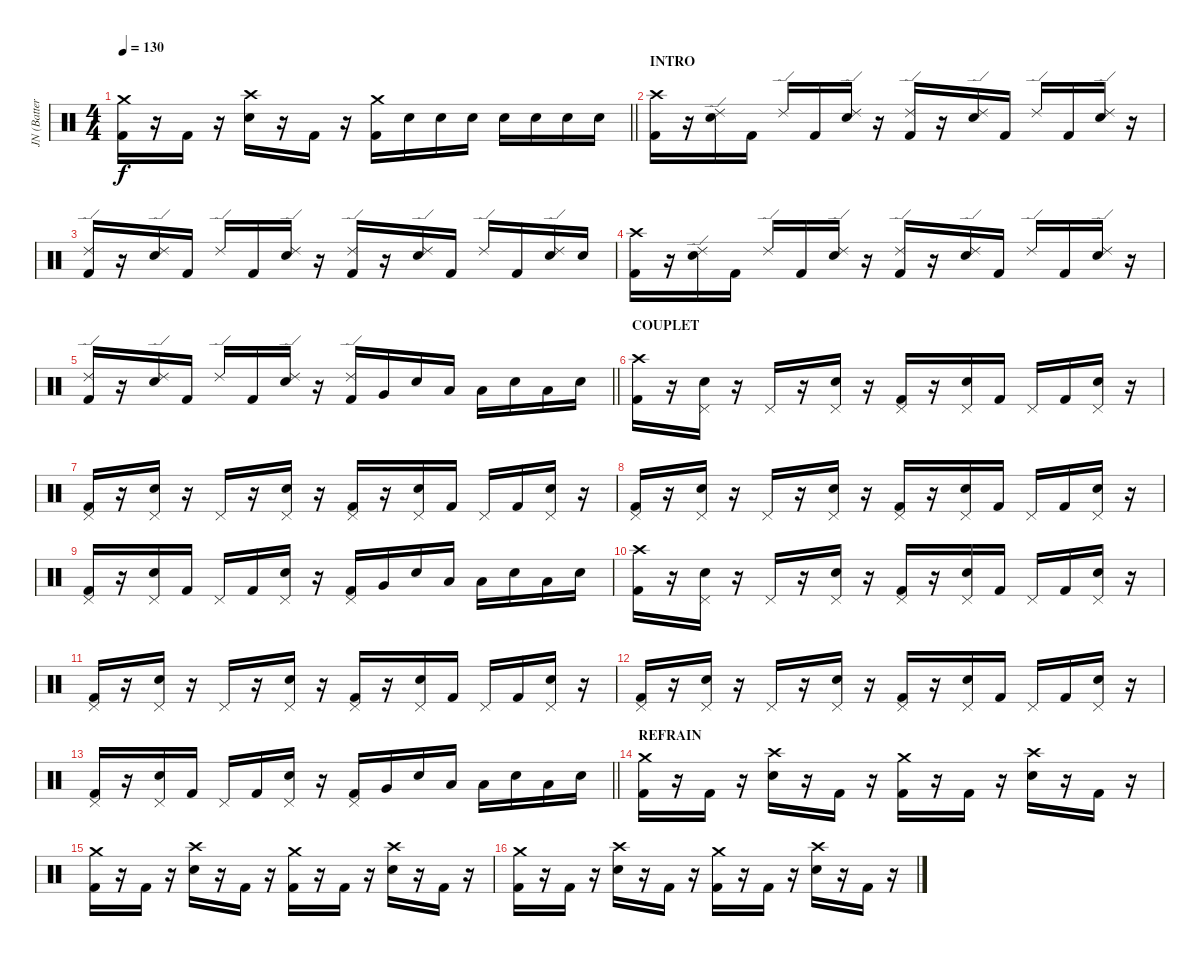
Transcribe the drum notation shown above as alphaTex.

\track ("JN (Batterie)" "JN (Batter") {instrument percussion}
\staff {score}
\articulation defaults
\ts (4 4)
\tempo 130
\clef neutral
\barLineRight lightlight
\ks c
("Crash medium (hit)" "Kick (hit) 2").16{dy f} r.16 "Kick (hit) 2".16 r.16 ("Crash high (hit)" "Electric Snare (hit)").16 r.16 "Kick (hit) 2".16 r.16 ("Crash medium (hit)" "Kick (hit) 2").16 "Electric Snare (hit)".16 "Electric Snare (hit)".16 "Electric Snare (hit)".16 "Electric Snare (hit)".16 "Electric Snare (hit)".16 "Electric Snare (hit)".16 "Electric Snare (hit)".16 |
\section ("" "INTRO")
("Crash high (hit)" "Kick (hit) 2").16 r.16 ("Ride (edge) 2" "Electric Snare (hit)").16 "Kick (hit) 2".16 "Ride (edge) 2".16 "Kick (hit) 2".16 ("Ride (edge) 2" "Electric Snare (hit)").16 r.16 ("Ride (edge) 2" "Kick (hit) 2").16 r.16 ("Ride (edge) 2" "Electric Snare (hit)").16 "Kick (hit) 2".16 "Ride (edge) 2".16 "Kick (hit) 2".16 ("Ride (edge) 2" "Electric Snare (hit)").16 r.16 |
("Ride (edge) 2" "Kick (hit) 2").16 r.16 ("Ride (edge) 2" "Electric Snare (hit)").16 "Kick (hit) 2".16 "Ride (edge) 2".16 "Kick (hit) 2".16 ("Ride (edge) 2" "Electric Snare (hit)").16 r.16 ("Ride (edge) 2" "Kick (hit) 2").16 r.16 ("Ride (edge) 2" "Electric Snare (hit)").16 "Kick (hit) 2".16 "Ride (edge) 2".16 "Kick (hit) 2".16 ("Ride (edge) 2" "Electric Snare (hit)").16 "Electric Snare (hit)".16 |
("Crash high (hit)" "Kick (hit) 2").16 r.16 ("Ride (edge) 2" "Electric Snare (hit)").16 "Kick (hit) 2".16 "Ride (edge) 2".16 "Kick (hit) 2".16 ("Ride (edge) 2" "Electric Snare (hit)").16 r.16 ("Ride (edge) 2" "Kick (hit) 2").16 r.16 ("Ride (edge) 2" "Electric Snare (hit)").16 "Kick (hit) 2".16 "Ride (edge) 2".16 "Kick (hit) 2".16 ("Ride (edge) 2" "Electric Snare (hit)").16 r.16 |
\barLineRight lightlight
("Ride (edge) 2" "Kick (hit) 2").16 r.16 ("Ride (edge) 2" "Electric Snare (hit)").16 "Kick (hit) 2".16 "Ride (edge) 2".16 "Kick (hit) 2".16 ("Ride (edge) 2" "Electric Snare (hit)").16 r.16 ("Ride (edge) 2" "Kick (hit) 2").16 "Very Low Tom (hit)".16 "Electric Snare (hit)".16 "Low Tom (hit)".16 "Low Tom (hit)".16 "Electric Snare (hit)".16 "Low Tom (hit)".16 "Electric Snare (hit)".16 |
\section ("" "COUPLET")
("Crash high (hit)" "Kick (hit) 2").16 r.16 ("Pedal Hi-Hat (hit)" "Electric Snare (hit)").16 r.16 "Pedal Hi-Hat (hit)".16 r.16 ("Pedal Hi-Hat (hit)" "Electric Snare (hit)").16 r.16 ("Pedal Hi-Hat (hit)" "Kick (hit) 2").16 r.16 ("Pedal Hi-Hat (hit)" "Electric Snare (hit)").16 "Kick (hit) 2".16 "Pedal Hi-Hat (hit)".16 "Kick (hit) 2".16 ("Pedal Hi-Hat (hit)" "Electric Snare (hit)").16 r.16 |
("Pedal Hi-Hat (hit)" "Kick (hit) 2").16 r.16 ("Pedal Hi-Hat (hit)" "Electric Snare (hit)").16 r.16 "Pedal Hi-Hat (hit)".16 r.16 ("Pedal Hi-Hat (hit)" "Electric Snare (hit)").16 r.16 ("Pedal Hi-Hat (hit)" "Kick (hit) 2").16 r.16 ("Pedal Hi-Hat (hit)" "Electric Snare (hit)").16 "Kick (hit) 2".16 "Pedal Hi-Hat (hit)".16 "Kick (hit) 2".16 ("Pedal Hi-Hat (hit)" "Electric Snare (hit)").16 r.16 |
("Pedal Hi-Hat (hit)" "Kick (hit) 2").16 r.16 ("Pedal Hi-Hat (hit)" "Electric Snare (hit)").16 r.16 "Pedal Hi-Hat (hit)".16 r.16 ("Pedal Hi-Hat (hit)" "Electric Snare (hit)").16 r.16 ("Pedal Hi-Hat (hit)" "Kick (hit) 2").16 r.16 ("Pedal Hi-Hat (hit)" "Electric Snare (hit)").16 "Kick (hit) 2".16 "Pedal Hi-Hat (hit)".16 "Kick (hit) 2".16 ("Pedal Hi-Hat (hit)" "Electric Snare (hit)").16 r.16 |
("Pedal Hi-Hat (hit)" "Kick (hit) 2").16 r.16 ("Pedal Hi-Hat (hit)" "Electric Snare (hit)").16 "Kick (hit) 2".16 "Pedal Hi-Hat (hit)".16 "Kick (hit) 2".16 ("Pedal Hi-Hat (hit)" "Electric Snare (hit)").16 r.16 ("Pedal Hi-Hat (hit)" "Kick (hit) 2").16 "Very Low Tom (hit)".16 "Electric Snare (hit)".16 "Low Tom (hit)".16 "Low Tom (hit)".16 "Electric Snare (hit)".16 "Low Tom (hit)".16 "Electric Snare (hit)".16 |
("Crash high (hit)" "Kick (hit) 2").16 r.16 ("Pedal Hi-Hat (hit)" "Electric Snare (hit)").16 r.16 "Pedal Hi-Hat (hit)".16 r.16 ("Pedal Hi-Hat (hit)" "Electric Snare (hit)").16 r.16 ("Pedal Hi-Hat (hit)" "Kick (hit) 2").16 r.16 ("Pedal Hi-Hat (hit)" "Electric Snare (hit)").16 "Kick (hit) 2".16 "Pedal Hi-Hat (hit)".16 "Kick (hit) 2".16 ("Pedal Hi-Hat (hit)" "Electric Snare (hit)").16 r.16 |
("Pedal Hi-Hat (hit)" "Kick (hit) 2").16 r.16 ("Pedal Hi-Hat (hit)" "Electric Snare (hit)").16 r.16 "Pedal Hi-Hat (hit)".16 r.16 ("Pedal Hi-Hat (hit)" "Electric Snare (hit)").16 r.16 ("Pedal Hi-Hat (hit)" "Kick (hit) 2").16 r.16 ("Pedal Hi-Hat (hit)" "Electric Snare (hit)").16 "Kick (hit) 2".16 "Pedal Hi-Hat (hit)".16 "Kick (hit) 2".16 ("Pedal Hi-Hat (hit)" "Electric Snare (hit)").16 r.16 |
("Pedal Hi-Hat (hit)" "Kick (hit) 2").16 r.16 ("Pedal Hi-Hat (hit)" "Electric Snare (hit)").16 r.16 "Pedal Hi-Hat (hit)".16 r.16 ("Pedal Hi-Hat (hit)" "Electric Snare (hit)").16 r.16 ("Pedal Hi-Hat (hit)" "Kick (hit) 2").16 r.16 ("Pedal Hi-Hat (hit)" "Electric Snare (hit)").16 "Kick (hit) 2".16 "Pedal Hi-Hat (hit)".16 "Kick (hit) 2".16 ("Pedal Hi-Hat (hit)" "Electric Snare (hit)").16 r.16 |
\barLineRight lightlight
("Pedal Hi-Hat (hit)" "Kick (hit) 2").16 r.16 ("Pedal Hi-Hat (hit)" "Electric Snare (hit)").16 "Kick (hit) 2".16 "Pedal Hi-Hat (hit)".16 "Kick (hit) 2".16 ("Pedal Hi-Hat (hit)" "Electric Snare (hit)").16 r.16 ("Pedal Hi-Hat (hit)" "Kick (hit) 2").16 "Very Low Tom (hit)".16 "Electric Snare (hit)".16 "Low Tom (hit)".16 "Low Tom (hit)".16 "Electric Snare (hit)".16 "Low Tom (hit)".16 "Electric Snare (hit)".16 |
\section ("" "REFRAIN")
("Crash medium (hit)" "Kick (hit) 2").16 r.16 "Kick (hit) 2".16 r.16 ("Crash high (hit)" "Electric Snare (hit)").16 r.16 "Kick (hit) 2".16 r.16 ("Crash medium (hit)" "Kick (hit) 2").16 r.16 "Kick (hit) 2".16 r.16 ("Crash high (hit)" "Electric Snare (hit)").16 r.16 "Kick (hit) 2".16 r.16 |
("Crash medium (hit)" "Kick (hit) 2").16 r.16 "Kick (hit) 2".16 r.16 ("Crash high (hit)" "Electric Snare (hit)").16 r.16 "Kick (hit) 2".16 r.16 ("Crash medium (hit)" "Kick (hit) 2").16 r.16 "Kick (hit) 2".16 r.16 ("Crash high (hit)" "Electric Snare (hit)").16 r.16 "Kick (hit) 2".16 r.16 |
("Crash medium (hit)" "Kick (hit) 2").16 r.16 "Kick (hit) 2".16 r.16 ("Crash high (hit)" "Electric Snare (hit)").16 r.16 "Kick (hit) 2".16 r.16 ("Crash medium (hit)" "Kick (hit) 2").16 r.16 "Kick (hit) 2".16 r.16 ("Crash high (hit)" "Electric Snare (hit)").16 r.16 "Kick (hit) 2".16 r.16
